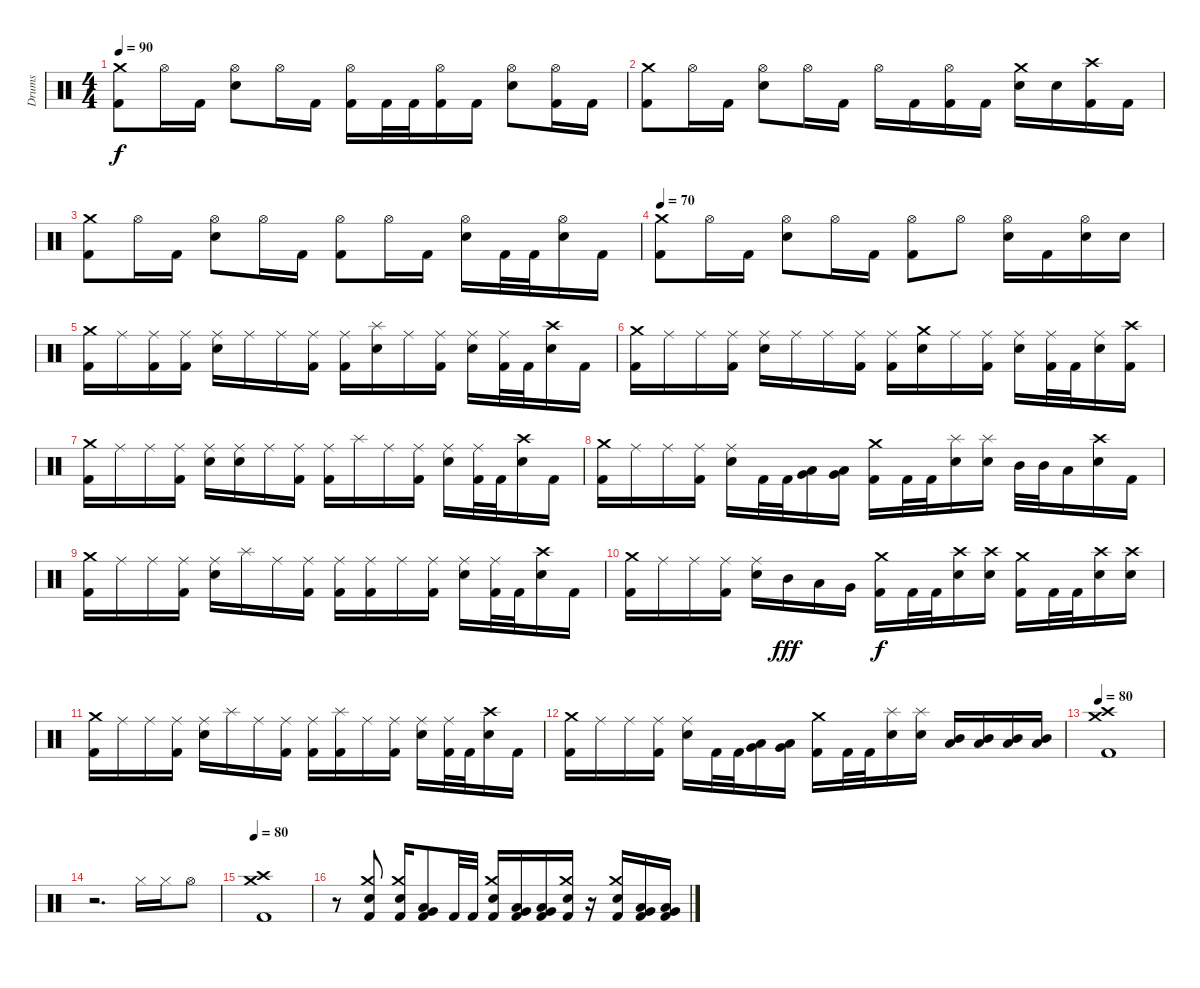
\track ("Drums" "Drums") {instrument percussion}
\staff {score}
\articulation defaults
\ts (4 4)
\tempo 90
\clef neutral
\ks c
("Kick (hit) 2" "Crash medium (hit)").8{dy f} "Hi-Hat (open)".16 "Kick (hit) 2".16 ("Electric Snare (hit)" "Hi-Hat (open)").8 "Hi-Hat (open)".16 "Kick (hit) 2".16 ("Kick (hit) 2" "Hi-Hat (open)").16 "Kick (hit) 2".32 "Kick (hit) 2".32 ("Kick (hit) 2" "Hi-Hat (open)").16 "Kick (hit) 2".16 ("Electric Snare (hit)" "Hi-Hat (open)").8 ("Kick (hit) 2" "Hi-Hat (open)").16 "Kick (hit) 2".16 |
("Kick (hit) 2" "Crash medium (hit)").8 "Hi-Hat (open)".16 "Kick (hit) 2".16 ("Electric Snare (hit)" "Hi-Hat (open)").8 "Hi-Hat (open)".16 "Kick (hit) 2".16 "Hi-Hat (open)".16 "Kick (hit) 2".16 ("Kick (hit) 2" "Hi-Hat (open)").16 "Kick (hit) 2".16 ("Electric Snare (hit)" "Crash medium (hit)").16 "Electric Snare (hit)".16 ("Kick (hit) 2" "Crash high (hit)").16 "Kick (hit) 2".16 |
("Kick (hit) 2" "Crash medium (hit)").8 "Hi-Hat (open)".16 "Kick (hit) 2".16 ("Electric Snare (hit)" "Hi-Hat (open)").8 "Hi-Hat (open)".16 "Kick (hit) 2".16 ("Kick (hit) 2" "Hi-Hat (open)").8 "Hi-Hat (open)".16 "Kick (hit) 2".16 ("Electric Snare (hit)" "Hi-Hat (open)").16 "Kick (hit) 2".32 "Kick (hit) 2".32 ("Electric Snare (hit)" "Hi-Hat (open)").16 "Kick (hit) 2".16 |
\tempo 70
("Kick (hit) 2" "Crash medium (hit)").8 "Hi-Hat (open)".16 "Kick (hit) 2".16 ("Electric Snare (hit)" "Hi-Hat (open)").8 "Hi-Hat (open)".16 "Kick (hit) 2".16 ("Kick (hit) 2" "Hi-Hat (open)").8 "Hi-Hat (open)".8 ("Electric Snare (hit)" "Hi-Hat (open)").16 "Kick (hit) 2".16 ("Electric Snare (hit)" "Hi-Hat (open)").16 "Electric Snare (hit)".16 |
("Kick (hit) 2" "Crash medium (hit)").16 "Ride (middle)".16 ("Kick (hit) 2" "Ride (middle)").16 ("Kick (hit) 2" "Ride (middle)").16 ("Electric Snare (hit)" "Ride (middle)").16 "Ride (middle)".16 "Ride (middle)".16 ("Kick (hit) 2" "Ride (middle)").16 ("Kick (hit) 2" "Ride (middle)").16 ("Electric Snare (hit)" "Splash (hit)").16 "Ride (middle)".16 ("Kick (hit) 2" "Ride (middle)").16 ("Electric Snare (hit)" "Ride (middle)").16 ("Kick (hit) 2" "Ride (middle)").32 "Kick (hit) 2".32 ("Electric Snare (hit)" "Crash high (hit)").16 "Kick (hit) 2".16 |
("Kick (hit) 2" "Crash medium (hit)").16 "Ride (middle)".16 "Ride (middle)".16 ("Kick (hit) 2" "Ride (middle)").16 ("Electric Snare (hit)" "Ride (middle)").16 "Ride (middle)".16 "Ride (middle)".16 ("Kick (hit) 2" "Ride (middle)").16 ("Kick (hit) 2" "Ride (middle)").16 ("Electric Snare (hit)" "Crash medium (hit)").16 "Ride (middle)".16 ("Kick (hit) 2" "Ride (middle)").16 ("Electric Snare (hit)" "Ride (middle)").16 ("Kick (hit) 2" "Ride (middle)").32 "Kick (hit) 2".32 ("Electric Snare (hit)" "Ride (middle)").16 ("Kick (hit) 2" "Crash high (hit)").16 |
("Kick (hit) 2" "Crash medium (hit)").16 "Ride (middle)".16 "Ride (middle)".16 ("Kick (hit) 2" "Ride (middle)").16 ("Electric Snare (hit)" "Ride (middle)").16 ("Electric Snare (hit)" "Ride (middle)").16 "Ride (middle)".16 ("Kick (hit) 2" "Ride (middle)").16 ("Kick (hit) 2" "Ride (middle)").16 "Splash (hit)".16 "Ride (middle)".16 ("Kick (hit) 2" "Ride (middle)").16 ("Electric Snare (hit)" "Ride (middle)").16 ("Kick (hit) 2" "Ride (middle)").32 "Kick (hit) 2".32 ("Electric Snare (hit)" "Crash high (hit)").16 "Kick (hit) 2".16 |
("Kick (hit) 2" "Crash medium (hit)").16 "Ride (middle)".16 "Ride (middle)".16 ("Kick (hit) 2" "Ride (middle)").16 ("Electric Snare (hit)" "Ride (middle)").16 "Kick (hit) 2".32 "Kick (hit) 2".32 ("Low Tom (hit)" "Very Low Tom (hit)").16 ("Low Tom (hit)" "Very Low Tom (hit)").16 ("Kick (hit) 2" "Crash medium (hit)").16 "Kick (hit) 2".32 "Kick (hit) 2".32 ("Electric Snare (hit)" "Splash (hit)").16 ("Electric Snare (hit)" "Splash (hit)").16 "Mid Tom (hit)".32 "Mid Tom (hit)".32 "Low Tom (hit)".16 ("Electric Snare (hit)" "Crash high (hit)").16 "Kick (hit) 2".16 |
("Kick (hit) 2" "Crash medium (hit)").16 "Ride (middle)".16 "Ride (middle)".16 ("Kick (hit) 2" "Ride (middle)").16 ("Electric Snare (hit)" "Ride (middle)").16 "Splash (hit)".16 "Ride (middle)".16 ("Kick (hit) 2" "Ride (middle)").16 ("Kick (hit) 2" "Ride (middle)").16 ("Kick (hit) 2" "Ride (middle)").16 "Ride (middle)".16 ("Kick (hit) 2" "Ride (middle)").16 ("Electric Snare (hit)" "Ride (middle)").16 ("Kick (hit) 2" "Ride (middle)").32 "Kick (hit) 2".32 ("Electric Snare (hit)" "Crash high (hit)").16 "Kick (hit) 2".16 |
("Kick (hit) 2" "Crash medium (hit)").16 "Ride (middle)".16 "Ride (middle)".16 ("Kick (hit) 2" "Ride (middle)").16 ("Electric Snare (hit)" "Ride (middle)").16 "Mid Tom (hit)".16{dy fff} "Low Tom (hit)".16 "Very Low Tom (hit)".16 ("Kick (hit) 2" "Crash medium (hit)").16{dy f} "Kick (hit) 2".32 "Kick (hit) 2".32 ("Electric Snare (hit)" "Crash high (hit)").16 ("Electric Snare (hit)" "Crash high (hit)").16 ("Kick (hit) 2" "Crash medium (hit)").16 "Kick (hit) 2".32 "Kick (hit) 2".32 ("Electric Snare (hit)" "Crash high (hit)").16 ("Electric Snare (hit)" "Crash high (hit)").16 |
("Kick (hit) 2" "Crash medium (hit)").16 "Ride (middle)".16 "Ride (middle)".16 ("Kick (hit) 2" "Ride (middle)").16 ("Electric Snare (hit)" "Ride (middle)").16 "Splash (hit)".16 "Ride (middle)".16 ("Kick (hit) 2" "Ride (middle)").16 ("Kick (hit) 2" "Ride (middle)").16 ("Kick (hit) 2" "Splash (hit)").16 "Ride (middle)".16 ("Kick (hit) 2" "Ride (middle)").16 ("Electric Snare (hit)" "Ride (middle)").16 ("Kick (hit) 2" "Ride (middle)").32 "Kick (hit) 2".32 ("Electric Snare (hit)" "Crash high (hit)").16 "Kick (hit) 2".16 |
("Kick (hit) 2" "Crash medium (hit)").16 "Ride (middle)".16 "Ride (middle)".16 ("Kick (hit) 2" "Ride (middle)").16 ("Electric Snare (hit)" "Ride (middle)").16 "Kick (hit) 2".32 "Kick (hit) 2".32 ("Low Tom (hit)" "Very Low Tom (hit)").16 ("Low Tom (hit)" "Very Low Tom (hit)").16 ("Kick (hit) 2" "Crash medium (hit)").16 "Kick (hit) 2".32 "Kick (hit) 2".32 ("Electric Snare (hit)" "Splash (hit)").16 ("Electric Snare (hit)" "Splash (hit)").16 ("Mid Tom (hit)" "Low Tom (hit)").16 ("Mid Tom (hit)" "Low Tom (hit)").16 ("Mid Tom (hit)" "Low Tom (hit)").16 ("Mid Tom (hit)" "Low Tom (hit)").16 |
\tempo 80
("Kick (hit) 2" "Crash high (hit)" "Crash medium (hit)").1 |
r.2{d} "Hi-Hat (closed)".16 "Hi-Hat (closed)".16 "Hi-Hat (open)".8 |
\tempo 80
("Kick (hit) 2" "Crash high (hit)" "Crash medium (hit)").1 |
r.8 ("Kick (hit) 2" "Electric Snare (hit)" "Crash medium (hit)").8 ("Kick (hit) 2" "Electric Snare (hit)" "Crash medium (hit)").16 ("Kick (hit) 2" "Low Tom (hit)" "Very Low Tom (hit)").8 "Kick (hit) 2".32 "Kick (hit) 2".32 ("Kick (hit) 2" "Electric Snare (hit)" "Crash medium (hit)").16 ("Kick (hit) 2" "Low Tom (hit)" "Very Low Tom (hit)").16 ("Kick (hit) 2" "Low Tom (hit)" "Very Low Tom (hit)").16 ("Kick (hit) 2" "Electric Snare (hit)" "Crash medium (hit)").16 r.16 ("Kick (hit) 2" "Electric Snare (hit)" "Crash medium (hit)").16 ("Kick (hit) 2" "Low Tom (hit)" "Very Low Tom (hit)").16 ("Kick (hit) 2" "Low Tom (hit)" "Very Low Tom (hit)").16
